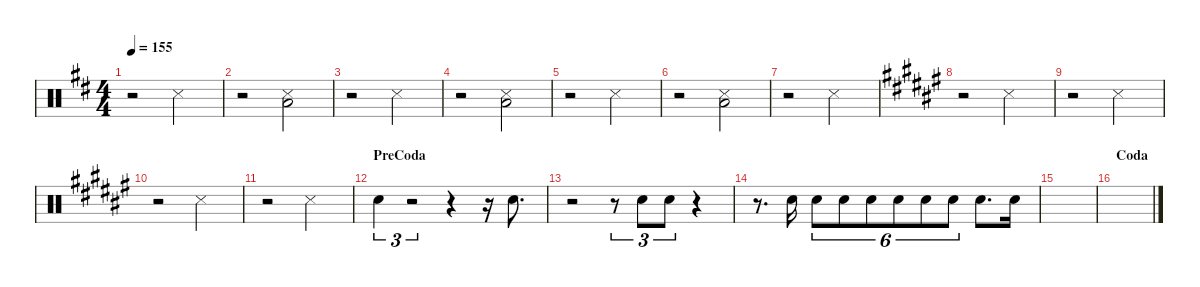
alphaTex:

\hideDynamics
\bracketExtendMode nobrackets
\singleTrackTrackNamePolicy hidden
\multiTrackTrackNamePolicy hidden
\otherSystemsTrackNameOrientation horizontal
\track ("Drums" "Drums") {instrument percussion}
\staff {score}
\articulation defaults
\ts (4 4)
\tempo 155
\clef neutral
\ks d
r.2{dy mf beam Down} "Snare (side stick) 3"{acc forcenatural}.2{beam Down} |
r.2{beam Down} ("Snare (side stick) 3"{acc forcenatural} "Low Tom (hit)"{acc forcenatural}).2{beam Down} |
r.2{beam Down} "Snare (side stick) 3"{acc forcenatural}.2{beam Down} |
r.2{beam Down} ("Snare (side stick) 3"{acc forcenatural} "Low Tom (hit)"{acc forcenatural}).2{beam Down} |
r.2{beam Down} "Snare (side stick) 3"{acc forcenatural}.2{beam Down} |
r.2{beam Down} ("Snare (side stick) 3"{acc forcenatural} "Low Tom (hit)"{acc forcenatural}).2{beam Down} |
r.2{beam Down} "Snare (side stick) 3"{acc forcenatural}.2{beam Down} |
\ks f#
r.2{beam Down} "Snare (side stick) 3"{acc forcenatural}.2{beam Down} |
r.2{beam Down} "Snare (side stick) 3"{acc forcenatural}.2{beam Down} |
r.2{beam Down} "Snare (side stick) 3"{acc forcenatural}.2{beam Down} |
r.2{beam Down} "Snare (side stick) 3"{acc forcenatural}.2{beam Down} |
\section ("" "PreCoda")
"Snare (hit) 2"{acc forcenatural}.4{tu (3 2) beam Down} r.2{tu (3 2) beam Down} r.4{beam Down} r.16{beam Down} "Snare (hit) 2"{acc forcenatural}.8{d beam Down} |
r.2{beam Down} r.8{tu (3 2) beam Down} "Snare (hit) 2"{acc forcenatural}.8{tu (3 2) beam Down} "Snare (hit) 2"{acc forcenatural}.8{tu (3 2) beam Down} r.4{beam Down} |
r.8{d beam Down} "Snare (hit) 2"{acc forcenatural}.16{dy mp beam Down} "Snare (hit) 2"{acc forcenatural}.8{tu (6 4) dy pp beam Down} "Snare (hit) 2"{acc forcenatural}.8{tu (6 4) beam Down} "Snare (hit) 2"{acc forcenatural}.8{tu (6 4) beam Down} "Snare (hit) 2"{acc forcenatural}.8{tu (6 4) dy p beam Down} "Snare (hit) 2"{acc forcenatural}.8{tu (6 4) beam Down} "Snare (hit) 2"{acc forcenatural}.8{tu (6 4) dy mp beam Down} "Snare (hit) 2"{acc forcenatural}.8{d beam Down} "Snare (hit) 2"{acc forcenatural}.16{beam Down} |
|
\section ("" "Coda")
